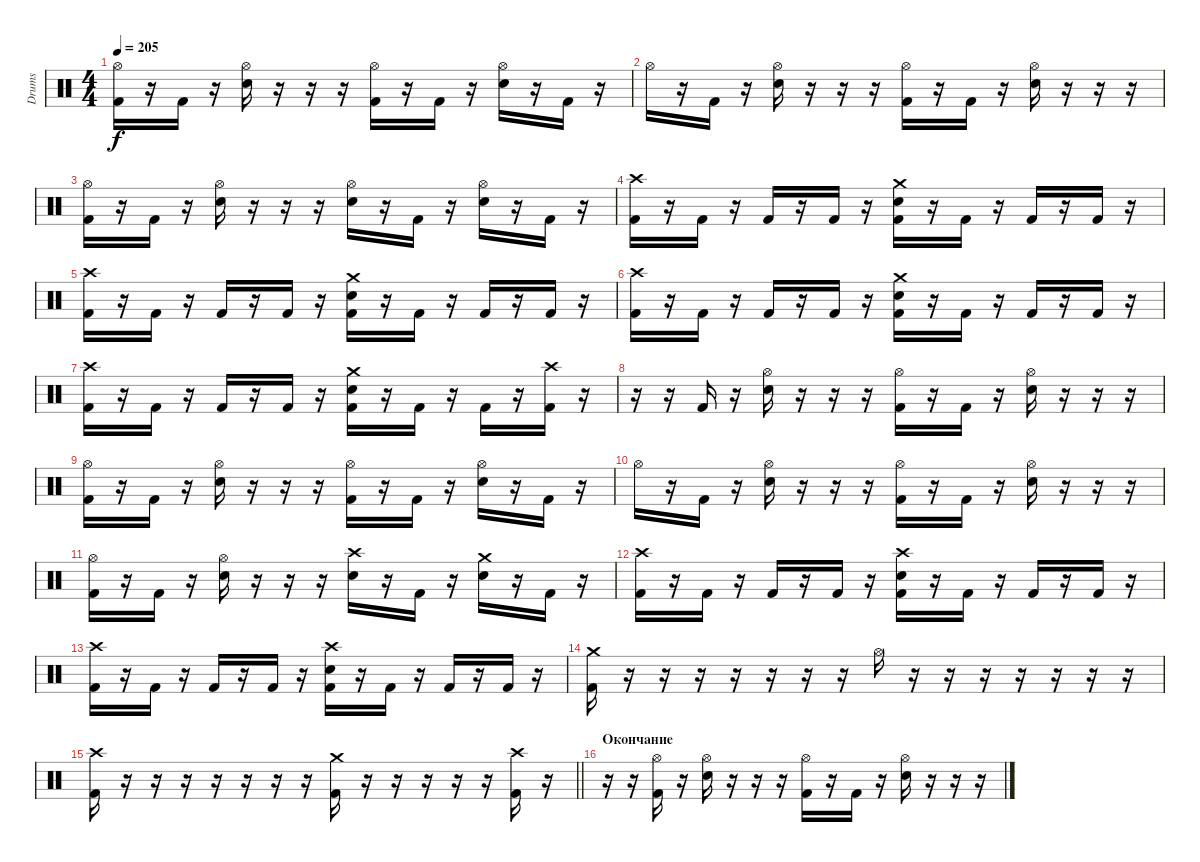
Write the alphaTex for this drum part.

\track ("Drums" "Drums") {instrument percussion}
\staff {score}
\articulation defaults
\ts (4 4)
\tempo 205
\clef neutral
\ks c
("Hi-Hat (open)" "Kick (hit) 2").16{dy f} r.16 "Kick (hit) 2".16 r.16 ("Hi-Hat (open)" "Electric Snare (hit)").16 r.16 r.16 r.16 ("Hi-Hat (open)" "Kick (hit) 2").16 r.16 "Kick (hit) 2".16 r.16 ("Hi-Hat (open)" "Electric Snare (hit)").16 r.16 "Kick (hit) 2".16 r.16 |
"Hi-Hat (open)".16 r.16 "Kick (hit) 2".16 r.16 ("Hi-Hat (open)" "Electric Snare (hit)").16 r.16 r.16 r.16 ("Hi-Hat (open)" "Kick (hit) 2").16 r.16 "Kick (hit) 2".16 r.16 ("Hi-Hat (open)" "Electric Snare (hit)").16 r.16 r.16 r.16 |
("Hi-Hat (open)" "Kick (hit) 2").16 r.16 "Kick (hit) 2".16 r.16 ("Hi-Hat (open)" "Electric Snare (hit)").16 r.16 r.16 r.16 ("Hi-Hat (open)" "Electric Snare (hit)").16 r.16 "Kick (hit) 2".16 r.16 ("Hi-Hat (open)" "Electric Snare (hit)").16 r.16 "Kick (hit) 2".16 r.16 |
("Crash high (hit)" "Kick (hit) 2").16 r.16 "Kick (hit) 2".16 r.16 "Kick (hit) 2".16 r.16 "Kick (hit) 2".16 r.16 ("Crash medium (hit)" "Electric Snare (hit)" "Kick (hit) 2").16 r.16 "Kick (hit) 2".16 r.16 "Kick (hit) 2".16 r.16 "Kick (hit) 2".16 r.16 |
("Crash high (hit)" "Kick (hit) 2").16 r.16 "Kick (hit) 2".16 r.16 "Kick (hit) 2".16 r.16 "Kick (hit) 2".16 r.16 ("Crash medium (hit)" "Electric Snare (hit)" "Kick (hit) 2").16 r.16 "Kick (hit) 2".16 r.16 "Kick (hit) 2".16 r.16 "Kick (hit) 2".16 r.16 |
("Crash high (hit)" "Kick (hit) 2").16 r.16 "Kick (hit) 2".16 r.16 "Kick (hit) 2".16 r.16 "Kick (hit) 2".16 r.16 ("Crash medium (hit)" "Electric Snare (hit)" "Kick (hit) 2").16 r.16 "Kick (hit) 2".16 r.16 "Kick (hit) 2".16 r.16 "Kick (hit) 2".16 r.16 |
("Crash high (hit)" "Kick (hit) 2").16 r.16 "Kick (hit) 2".16 r.16 "Kick (hit) 2".16 r.16 "Kick (hit) 2".16 r.16 ("Crash medium (hit)" "Electric Snare (hit)" "Kick (hit) 2").16 r.16 "Kick (hit) 2".16 r.16 "Kick (hit) 2".16 r.16 ("Crash high (hit)" "Kick (hit) 2").16 r.16 |
r.16 r.16 "Kick (hit) 2".16 r.16 ("Hi-Hat (open)" "Electric Snare (hit)").16 r.16 r.16 r.16 ("Hi-Hat (open)" "Kick (hit) 2").16 r.16 "Kick (hit) 2".16 r.16 ("Hi-Hat (open)" "Electric Snare (hit)").16 r.16 r.16 r.16 |
("Hi-Hat (open)" "Kick (hit) 2").16 r.16 "Kick (hit) 2".16 r.16 ("Hi-Hat (open)" "Electric Snare (hit)").16 r.16 r.16 r.16 ("Hi-Hat (open)" "Kick (hit) 2").16 r.16 "Kick (hit) 2".16 r.16 ("Hi-Hat (open)" "Electric Snare (hit)").16 r.16 "Kick (hit) 2".16 r.16 |
"Hi-Hat (open)".16 r.16 "Kick (hit) 2".16 r.16 ("Hi-Hat (open)" "Electric Snare (hit)").16 r.16 r.16 r.16 ("Hi-Hat (open)" "Kick (hit) 2").16 r.16 "Kick (hit) 2".16 r.16 ("Hi-Hat (open)" "Electric Snare (hit)").16 r.16 r.16 r.16 |
("Hi-Hat (open)" "Kick (hit) 2").16 r.16 "Kick (hit) 2".16 r.16 ("Hi-Hat (open)" "Electric Snare (hit)").16 r.16 r.16 r.16 ("Crash high (hit)" "Electric Snare (hit)").16 r.16 "Kick (hit) 2".16 r.16 ("Crash medium (hit)" "Electric Snare (hit)").16 r.16 "Kick (hit) 2".16 r.16 |
("Crash high (hit)" "Kick (hit) 2").16 r.16 "Kick (hit) 2".16 r.16 "Kick (hit) 2".16 r.16 "Kick (hit) 2".16 r.16 ("Crash high (hit)" "Electric Snare (hit)" "Kick (hit) 2").16 r.16 "Kick (hit) 2".16 r.16 "Kick (hit) 2".16 r.16 "Kick (hit) 2".16 r.16 |
("Crash high (hit)" "Kick (hit) 2").16 r.16 "Kick (hit) 2".16 r.16 "Kick (hit) 2".16 r.16 "Kick (hit) 2".16 r.16 ("Crash high (hit)" "Electric Snare (hit)" "Kick (hit) 2").16 r.16 "Kick (hit) 2".16 r.16 "Kick (hit) 2".16 r.16 "Kick (hit) 2".16 r.16 |
("Crash medium (hit)" "Kick (hit) 2").16 r.16 r.16 r.16 r.16 r.16 r.16 r.16 "Hi-Hat (open)".16 r.16 r.16 r.16 r.16 r.16 r.16 r.16 |
\barLineRight lightlight
("Crash high (hit)" "Kick (hit) 2").16 r.16 r.16 r.16 r.16 r.16 r.16 r.16 ("Crash medium (hit)" "Kick (hit) 2").16 r.16 r.16 r.16 r.16 r.16 ("Crash high (hit)" "Kick (hit) 2").16 r.16 |
\section ("" "Окончание")
r.16 r.16 ("Hi-Hat (open)" "Kick (hit) 2").16 r.16 ("Hi-Hat (open)" "Electric Snare (hit)").16 r.16 r.16 r.16 ("Hi-Hat (open)" "Kick (hit) 2").16 r.16 "Kick (hit) 2".16 r.16 ("Hi-Hat (open)" "Electric Snare (hit)").16 r.16 r.16 r.16
